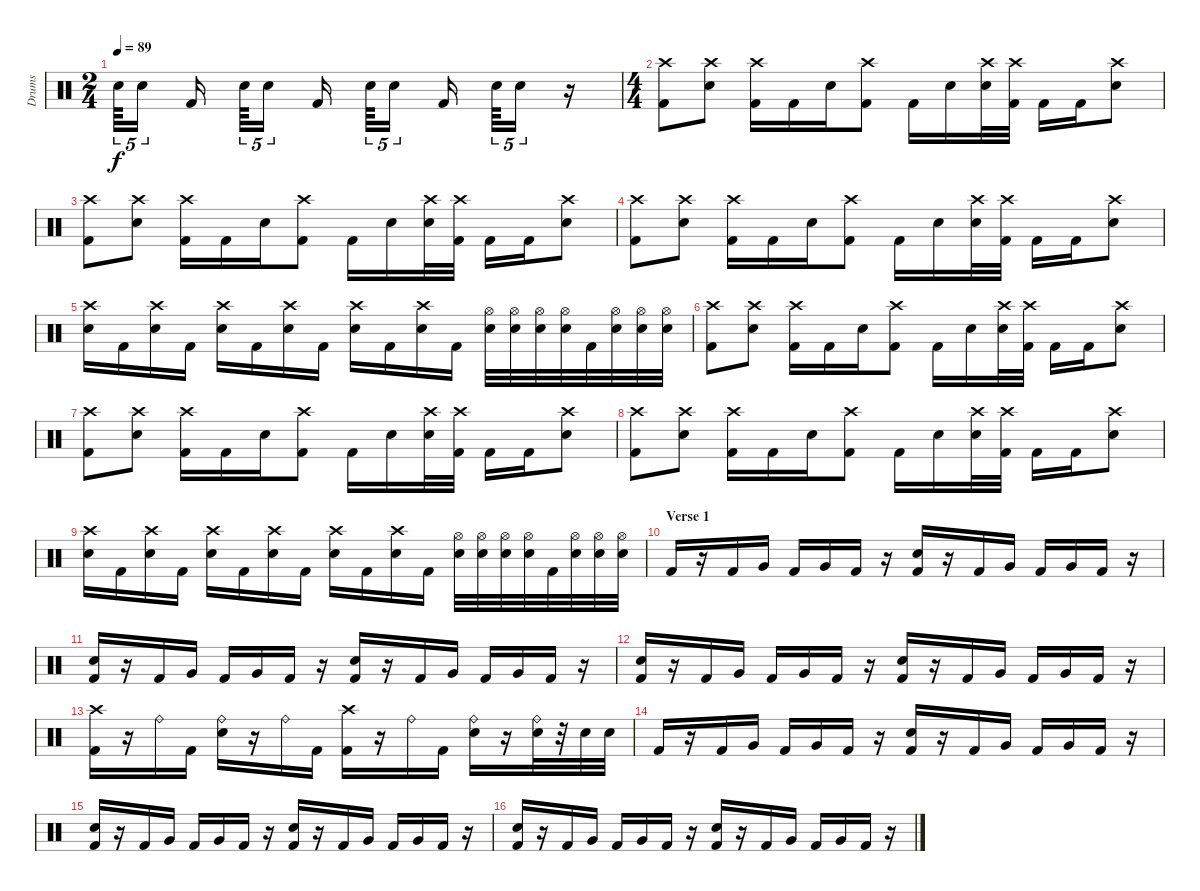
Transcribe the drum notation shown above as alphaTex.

\track ("Drums" "Drums") {instrument percussion}
\staff {score}
\articulation defaults
\ts (2 4)
\tempo 89
\clef neutral
\ks c "Snare (hit) 2".64{tu (5 4) dy f} "Electric Snare (hit)".16{tu (5 4)} "Kick (hit) 2".16 "Snare (hit) 2".64{tu (5 4)} "Electric Snare (hit)".16{tu (5 4)} "Kick (hit) 2".16 "Snare (hit) 2".64{tu (5 4)} "Electric Snare (hit)".16{tu (5 4)} "Kick (hit) 2".16 "Snare (hit) 2".64{tu (5 4)} "Electric Snare (hit)".16{tu (5 4)}
r.16 |
\ts (4 4)
("Crash high (hit)" "Kick (hit) 2").8 ("Crash high (hit)" "Electric Snare (hit)").8 ("Crash high (hit)" "Kick (hit) 2").16 "Kick (hit) 2".16 "Electric Snare (hit)".16 ("Crash high (hit)" "Kick (hit) 2").8 "Kick (hit) 2".16 "Electric Snare (hit)".16 ("Crash high (hit)" "Electric Snare (hit)").32 ("Crash high (hit)" "Kick (hit) 2").32 "Kick (hit) 2".16 "Kick (hit) 2".16 ("Crash high (hit)" "Electric Snare (hit)").8 |
("Crash high (hit)" "Kick (hit) 2").8 ("Crash high (hit)" "Electric Snare (hit)").8 ("Crash high (hit)" "Kick (hit) 2").16 "Kick (hit) 2".16 "Electric Snare (hit)".16 ("Crash high (hit)" "Kick (hit) 2").8 "Kick (hit) 2".16 "Electric Snare (hit)".16 ("Crash high (hit)" "Electric Snare (hit)").32 ("Crash high (hit)" "Kick (hit) 2").32 "Kick (hit) 2".16 "Kick (hit) 2".16 ("Crash high (hit)" "Electric Snare (hit)").8 |
("Crash high (hit)" "Kick (hit) 2").8 ("Crash high (hit)" "Electric Snare (hit)").8 ("Crash high (hit)" "Kick (hit) 2").16 "Kick (hit) 2".16 "Electric Snare (hit)".16 ("Crash high (hit)" "Kick (hit) 2").8 "Kick (hit) 2".16 "Electric Snare (hit)".16 ("Crash high (hit)" "Electric Snare (hit)").32 ("Crash high (hit)" "Kick (hit) 2").32 "Kick (hit) 2".16 "Kick (hit) 2".16 ("Crash high (hit)" "Electric Snare (hit)").8 |
("Crash high (hit)" "Electric Snare (hit)").16 "Kick (hit) 2".16 ("Crash high (hit)" "Electric Snare (hit)").16 "Kick (hit) 2".16 ("Crash high (hit)" "Electric Snare (hit)").16 "Kick (hit) 2".16 ("Crash high (hit)" "Electric Snare (hit)").16 "Kick (hit) 2".16 ("Crash high (hit)" "Electric Snare (hit)").16 "Kick (hit) 2".16 ("Crash high (hit)" "Electric Snare (hit)").16 "Kick (hit) 2".16 ("Hi-Hat (open)" "Electric Snare (hit)").32 ("Hi-Hat (open)" "Electric Snare (hit)").32 ("Hi-Hat (open)" "Electric Snare (hit)").32 ("Hi-Hat (open)" "Electric Snare (hit)").32 "Kick (hit) 2".32 ("Hi-Hat (open)" "Electric Snare (hit)").32 ("Hi-Hat (open)" "Electric Snare (hit)").32 ("Hi-Hat (open)" "Electric Snare (hit)").32 |
("Crash high (hit)" "Kick (hit) 2").8 ("Crash high (hit)" "Electric Snare (hit)").8 ("Crash high (hit)" "Kick (hit) 2").16 "Kick (hit) 2".16 "Electric Snare (hit)".16 ("Crash high (hit)" "Kick (hit) 2").8 "Kick (hit) 2".16 "Electric Snare (hit)".16 ("Crash high (hit)" "Electric Snare (hit)").32 ("Crash high (hit)" "Kick (hit) 2").32 "Kick (hit) 2".16 "Kick (hit) 2".16 ("Crash high (hit)" "Electric Snare (hit)").8 |
("Crash high (hit)" "Kick (hit) 2").8 ("Crash high (hit)" "Electric Snare (hit)").8 ("Crash high (hit)" "Kick (hit) 2").16 "Kick (hit) 2".16 "Electric Snare (hit)".16 ("Crash high (hit)" "Kick (hit) 2").8 "Kick (hit) 2".16 "Electric Snare (hit)".16 ("Crash high (hit)" "Electric Snare (hit)").32 ("Crash high (hit)" "Kick (hit) 2").32 "Kick (hit) 2".16 "Kick (hit) 2".16 ("Crash high (hit)" "Electric Snare (hit)").8 |
("Crash high (hit)" "Kick (hit) 2").8 ("Crash high (hit)" "Electric Snare (hit)").8 ("Crash high (hit)" "Kick (hit) 2").16 "Kick (hit) 2".16 "Electric Snare (hit)".16 ("Crash high (hit)" "Kick (hit) 2").8 "Kick (hit) 2".16 "Electric Snare (hit)".16 ("Crash high (hit)" "Electric Snare (hit)").32 ("Crash high (hit)" "Kick (hit) 2").32 "Kick (hit) 2".16 "Kick (hit) 2".16 ("Crash high (hit)" "Electric Snare (hit)").8 |
("Crash high (hit)" "Electric Snare (hit)").16 "Kick (hit) 2".16 ("Crash high (hit)" "Electric Snare (hit)").16 "Kick (hit) 2".16 ("Crash high (hit)" "Electric Snare (hit)").16 "Kick (hit) 2".16 ("Crash high (hit)" "Electric Snare (hit)").16 "Kick (hit) 2".16 ("Crash high (hit)" "Electric Snare (hit)").16 "Kick (hit) 2".16 ("Crash high (hit)" "Electric Snare (hit)").16 "Kick (hit) 2".16 ("Hi-Hat (open)" "Electric Snare (hit)").32 ("Hi-Hat (open)" "Electric Snare (hit)").32 ("Hi-Hat (open)" "Electric Snare (hit)").32 ("Hi-Hat (open)" "Electric Snare (hit)").32 "Kick (hit) 2".32 ("Hi-Hat (open)" "Electric Snare (hit)").32 ("Hi-Hat (open)" "Electric Snare (hit)").32 ("Hi-Hat (open)" "Electric Snare (hit)").32 |
\section ("" "Verse 1")
"Kick (hit) 2".16 r.16 "Kick (hit) 2".16 "Very Low Tom (hit)".16 "Kick (hit) 2".16 "Very Low Tom (hit)".16 "Kick (hit) 2".16 r.16 ("Electric Snare (hit)" "Kick (hit) 2").16 r.16 "Kick (hit) 2".16 "Very Low Tom (hit)".16 "Kick (hit) 2".16 "Very Low Tom (hit)".16 "Kick (hit) 2".16 r.16 |
("Electric Snare (hit)" "Kick (hit) 2").16 r.16 "Kick (hit) 2".16 "Very Low Tom (hit)".16 "Kick (hit) 2".16 "Very Low Tom (hit)".16 "Kick (hit) 2".16 r.16 ("Electric Snare (hit)" "Kick (hit) 2").16 r.16 "Kick (hit) 2".16 "Very Low Tom (hit)".16 "Kick (hit) 2".16 "Very Low Tom (hit)".16 "Kick (hit) 2".16 r.16 |
("Electric Snare (hit)" "Kick (hit) 2").16 r.16 "Kick (hit) 2".16 "Very Low Tom (hit)".16 "Kick (hit) 2".16 "Very Low Tom (hit)".16 "Kick (hit) 2".16 r.16 ("Electric Snare (hit)" "Kick (hit) 2").16 r.16 "Kick (hit) 2".16 "Very Low Tom (hit)".16 "Kick (hit) 2".16 "Very Low Tom (hit)".16 "Kick (hit) 2".16 r.16 |
("Crash high (hit)" "Kick (hit) 2").16 r.16 "Ride (bell)".16 "Kick (hit) 2".16 ("Ride (bell)" "Electric Snare (hit)").16 r.16 "Ride (bell)".16 "Kick (hit) 2".16 ("Crash high (hit)" "Kick (hit) 2").16 r.16 "Ride (bell)".16 "Kick (hit) 2".16 ("Ride (bell)" "Electric Snare (hit)").16 r.16 ("Ride (bell)" "Electric Snare (hit)").32 r.32 "Electric Snare (hit)".32 "Electric Snare (hit)".32 |
"Kick (hit) 2".16 r.16 "Kick (hit) 2".16 "Very Low Tom (hit)".16 "Kick (hit) 2".16 "Very Low Tom (hit)".16 "Kick (hit) 2".16 r.16 ("Electric Snare (hit)" "Kick (hit) 2").16 r.16 "Kick (hit) 2".16 "Very Low Tom (hit)".16 "Kick (hit) 2".16 "Very Low Tom (hit)".16 "Kick (hit) 2".16 r.16 |
("Electric Snare (hit)" "Kick (hit) 2").16 r.16 "Kick (hit) 2".16 "Very Low Tom (hit)".16 "Kick (hit) 2".16 "Very Low Tom (hit)".16 "Kick (hit) 2".16 r.16 ("Electric Snare (hit)" "Kick (hit) 2").16 r.16 "Kick (hit) 2".16 "Very Low Tom (hit)".16 "Kick (hit) 2".16 "Very Low Tom (hit)".16 "Kick (hit) 2".16 r.16 |
("Electric Snare (hit)" "Kick (hit) 2").16 r.16 "Kick (hit) 2".16 "Very Low Tom (hit)".16 "Kick (hit) 2".16 "Very Low Tom (hit)".16 "Kick (hit) 2".16 r.16 ("Electric Snare (hit)" "Kick (hit) 2").16 r.16 "Kick (hit) 2".16 "Very Low Tom (hit)".16 "Kick (hit) 2".16 "Very Low Tom (hit)".16 "Kick (hit) 2".16 r.16
